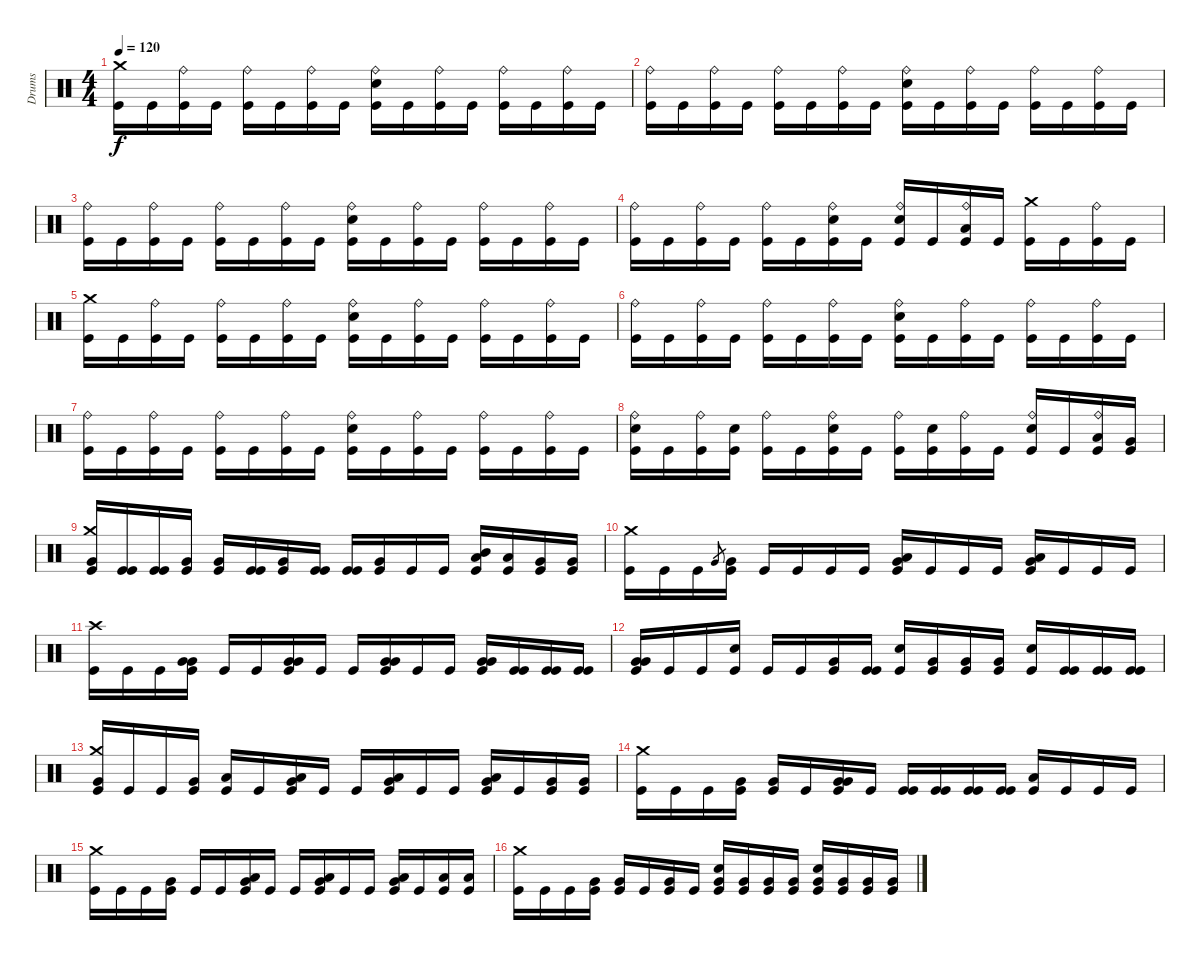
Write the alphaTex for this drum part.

\track ("Drums" "Drums") {instrument percussion}
\staff {score}
\articulation defaults
\ts (4 4)
\tempo 120
\clef neutral
\ks c
("Kick (hit)" "Crash medium (hit)").16{dy f} "Kick (hit)".16 ("Kick (hit)" "Ride (bell)").16 "Kick (hit)".16 ("Kick (hit)" "Ride (bell)").16 "Kick (hit)".16 ("Kick (hit)" "Ride (bell)").16 "Kick (hit)".16 ("Kick (hit)" "Electric Snare (hit)" "Ride (bell)").16 "Kick (hit)".16 ("Kick (hit)" "Ride (bell)").16 "Kick (hit)".16 ("Kick (hit)" "Ride (bell)").16 "Kick (hit)".16 ("Kick (hit)" "Ride (bell)").16 "Kick (hit)".16 |
("Kick (hit)" "Ride (bell)").16 "Kick (hit)".16 ("Kick (hit)" "Ride (bell)").16 "Kick (hit)".16 ("Kick (hit)" "Ride (bell)").16 "Kick (hit)".16 ("Kick (hit)" "Ride (bell)").16 "Kick (hit)".16 ("Kick (hit)" "Electric Snare (hit)" "Ride (bell)").16 "Kick (hit)".16 ("Kick (hit)" "Ride (bell)").16 "Kick (hit)".16 ("Kick (hit)" "Ride (bell)").16 "Kick (hit)".16 ("Kick (hit)" "Ride (bell)").16 "Kick (hit)".16 |
("Kick (hit)" "Ride (bell)").16 "Kick (hit)".16 ("Kick (hit)" "Ride (bell)").16 "Kick (hit)".16 ("Kick (hit)" "Ride (bell)").16 "Kick (hit)".16 ("Kick (hit)" "Ride (bell)").16 "Kick (hit)".16 ("Kick (hit)" "Electric Snare (hit)" "Ride (bell)").16 "Kick (hit)".16 ("Kick (hit)" "Ride (bell)").16 "Kick (hit)".16 ("Kick (hit)" "Ride (bell)").16 "Kick (hit)".16 ("Kick (hit)" "Ride (bell)").16 "Kick (hit)".16 |
("Kick (hit)" "Ride (bell)").16 "Kick (hit)".16 ("Kick (hit)" "Ride (bell)").16 "Kick (hit)".16 ("Kick (hit)" "Ride (bell)").16 "Kick (hit)".16 ("Kick (hit)" "Electric Snare (hit)" "Ride (bell)").16 "Kick (hit)".16 ("Kick (hit)" "Electric Snare (hit)" "Ride (bell)").16 "Kick (hit)".16 ("Kick (hit)" "Low Tom (hit)" "Ride (bell)").16 "Kick (hit)".16 ("Kick (hit)" "Crash medium (hit)").16 "Kick (hit)".16 ("Kick (hit)" "Ride (bell)").16 "Kick (hit)".16 |
("Kick (hit)" "Crash medium (hit)").16 "Kick (hit)".16 ("Kick (hit)" "Ride (bell)").16 "Kick (hit)".16 ("Kick (hit)" "Ride (bell)").16 "Kick (hit)".16 ("Kick (hit)" "Ride (bell)").16 "Kick (hit)".16 ("Kick (hit)" "Electric Snare (hit)" "Ride (bell)").16 "Kick (hit)".16 ("Kick (hit)" "Ride (bell)").16 "Kick (hit)".16 ("Kick (hit)" "Ride (bell)").16 "Kick (hit)".16 ("Kick (hit)" "Ride (bell)").16 "Kick (hit)".16 |
("Kick (hit)" "Ride (bell)").16 "Kick (hit)".16 ("Kick (hit)" "Ride (bell)").16 "Kick (hit)".16 ("Kick (hit)" "Ride (bell)").16 "Kick (hit)".16 ("Kick (hit)" "Ride (bell)").16 "Kick (hit)".16 ("Kick (hit)" "Electric Snare (hit)" "Ride (bell)").16 "Kick (hit)".16 ("Kick (hit)" "Ride (bell)").16 "Kick (hit)".16 ("Kick (hit)" "Ride (bell)").16 "Kick (hit)".16 ("Kick (hit)" "Ride (bell)").16 "Kick (hit)".16 |
("Kick (hit)" "Ride (bell)").16 "Kick (hit)".16 ("Kick (hit)" "Ride (bell)").16 "Kick (hit)".16 ("Kick (hit)" "Ride (bell)").16 "Kick (hit)".16 ("Kick (hit)" "Ride (bell)").16 "Kick (hit)".16 ("Kick (hit)" "Electric Snare (hit)" "Ride (bell)").16 "Kick (hit)".16 ("Kick (hit)" "Ride (bell)").16 "Kick (hit)".16 ("Kick (hit)" "Ride (bell)").16 "Kick (hit)".16 ("Kick (hit)" "Ride (bell)").16 "Kick (hit)".16 |
("Kick (hit)" "Electric Snare (hit)" "Ride (bell)").16 "Kick (hit)".16 ("Kick (hit)" "Ride (bell)").16 ("Kick (hit)" "Electric Snare (hit)").16 ("Kick (hit)" "Ride (bell)").16 "Kick (hit)".16 ("Kick (hit)" "Electric Snare (hit)" "Ride (bell)").16 "Kick (hit)".16 ("Kick (hit)" "Ride (bell)").16 ("Kick (hit)" "Electric Snare (hit)").16 ("Kick (hit)" "Ride (bell)").16 "Kick (hit)".16 ("Kick (hit)" "Electric Snare (hit)" "Ride (bell)").16 "Kick (hit)".16 ("Kick (hit)" "Low Tom (hit)" "Ride (bell)").16 ("Kick (hit)" "Very Low Tom (hit)").16 |
("Kick (hit)" "Very Low Tom (hit)" "Crash medium (hit)").16 ("Kick (hit)" "Kick (hit)").16 ("Kick (hit)" "Kick (hit)").16 ("Kick (hit)" "Very Low Tom (hit)").16 ("Kick (hit)" "Very Low Tom (hit)").16 ("Kick (hit)" "Kick (hit)").16 ("Kick (hit)" "Very Low Tom (hit)").16 ("Kick (hit)" "Kick (hit)").16 ("Kick (hit)" "Kick (hit)").16 ("Kick (hit)" "Very Low Tom (hit)").16 "Kick (hit)".16 "Kick (hit)".16 ("Kick (hit)" "Mid Tom (hit)" "Low Tom (hit)").16 ("Kick (hit)" "Low Tom (hit)").16 ("Kick (hit)" "Very Low Tom (hit)").16 ("Kick (hit)" "Very Low Tom (hit)").16 |
("Kick (hit)" "Crash medium (hit)").16 "Kick (hit)".16 "Kick (hit)".16 "Very Low Tom (hit)".8{gr} ("Kick (hit)" "Very Low Tom (hit)").16 "Kick (hit)".16 "Kick (hit)".16 "Kick (hit)".16 "Kick (hit)".16 ("Kick (hit)" "Very Low Tom (hit)" "Low Floor Tom (hit)").16 "Kick (hit)".16 "Kick (hit)".16 "Kick (hit)".16 ("Kick (hit)" "Very Low Tom (hit)" "Low Floor Tom (hit)").16 "Kick (hit)".16 "Kick (hit)".16 "Kick (hit)".16 |
("Kick (hit)" "Crash high (hit)").16 "Kick (hit)".16 "Kick (hit)".16 ("Kick (hit)" "Very Low Tom (hit)" "Very Low Tom (hit)").16 "Kick (hit)".16 "Kick (hit)".16 ("Kick (hit)" "Very Low Tom (hit)" "Very Low Tom (hit)").16 "Kick (hit)".16 "Kick (hit)".16 ("Kick (hit)" "Very Low Tom (hit)" "Very Low Tom (hit)").16 "Kick (hit)".16 "Kick (hit)".16 ("Kick (hit)" "Very Low Tom (hit)" "Very Low Tom (hit)").16 ("Kick (hit)" "Kick (hit)").16 ("Kick (hit)" "Kick (hit)").16 ("Kick (hit)" "Kick (hit)").16 |
("Kick (hit)" "Very Low Tom (hit)" "Very Low Tom (hit)").16 "Kick (hit)".16 "Kick (hit)".16 ("Kick (hit)" "Electric Snare (hit)").16 "Kick (hit)".16 "Kick (hit)".16 ("Kick (hit)" "Very Low Tom (hit)").16 ("Kick (hit)" "Kick (hit)").16 ("Kick (hit)" "Electric Snare (hit)").16 ("Kick (hit)" "Very Low Tom (hit)").16 ("Kick (hit)" "Very Low Tom (hit)").16 ("Kick (hit)" "Very Low Tom (hit)").16 ("Kick (hit)" "Electric Snare (hit)").16 ("Kick (hit)" "Kick (hit)").16 ("Kick (hit)" "Kick (hit)").16 ("Kick (hit)" "Kick (hit)").16 |
("Kick (hit)" "Very Low Tom (hit)" "Crash medium (hit)").16 "Kick (hit)".16 "Kick (hit)".16 ("Kick (hit)" "Very Low Tom (hit)").16 ("Kick (hit)" "Low Floor Tom (hit)").16 "Kick (hit)".16 ("Kick (hit)" "Low Floor Tom (hit)" "Very Low Tom (hit)").16 "Kick (hit)".16 "Kick (hit)".16 ("Kick (hit)" "Low Floor Tom (hit)" "Very Low Tom (hit)").16 "Kick (hit)".16 "Kick (hit)".16 ("Kick (hit)" "Low Tom (hit)" "Very Low Tom (hit)").16 "Kick (hit)".16 ("Kick (hit)" "Very Low Tom (hit)").16 ("Kick (hit)" "Very Low Tom (hit)").16 |
("Kick (hit)" "Crash medium (hit)").16 "Kick (hit)".16 "Kick (hit)".16 ("Kick (hit)" "Very Low Tom (hit)").16 ("Kick (hit)" "Very Low Tom (hit)").16 "Kick (hit)".16 ("Kick (hit)" "Very Low Tom (hit)" "Very Low Tom (hit)").16 "Kick (hit)".16 ("Kick (hit)" "Kick (hit)").16 ("Kick (hit)" "Kick (hit)").16 ("Kick (hit)" "Kick (hit)").16 ("Kick (hit)" "Kick (hit)").16 ("Kick (hit)" "Low Tom (hit)").16 "Kick (hit)".16 "Kick (hit)".16 "Kick (hit)".16 |
("Kick (hit)" "Crash medium (hit)").16 "Kick (hit)".16 "Kick (hit)".16 ("Kick (hit)" "Very Low Tom (hit)").16 "Kick (hit)".16 "Kick (hit)".16 ("Kick (hit)" "Low Floor Tom (hit)" "Very Low Tom (hit)").16 "Kick (hit)".16 "Kick (hit)".16 ("Kick (hit)" "Low Floor Tom (hit)" "Very Low Tom (hit)").16 "Kick (hit)".16 "Kick (hit)".16 ("Kick (hit)" "Low Floor Tom (hit)" "Very Low Tom (hit)").16 "Kick (hit)".16 ("Kick (hit)" "Low Tom (hit)").16 ("Kick (hit)" "Low Tom (hit)").16 |
("Kick (hit)" "Crash medium (hit)").16 "Kick (hit)".16 "Kick (hit)".16 ("Kick (hit)" "Very Low Tom (hit)").16 ("Kick (hit)" "Very Low Tom (hit)").16 "Kick (hit)".16 ("Kick (hit)" "Very Low Tom (hit)").16 "Kick (hit)".16 ("Kick (hit)" "Electric Snare (hit)" "Very Low Tom (hit)").16 ("Kick (hit)" "Very Low Tom (hit)").16 ("Kick (hit)" "Very Low Tom (hit)").16 ("Kick (hit)" "Very Low Tom (hit)").16 ("Kick (hit)" "Electric Snare (hit)" "Very Low Tom (hit)").16 ("Kick (hit)" "Very Low Tom (hit)").16 ("Kick (hit)" "Very Low Tom (hit)").16 ("Kick (hit)" "Very Low Tom (hit)").16
